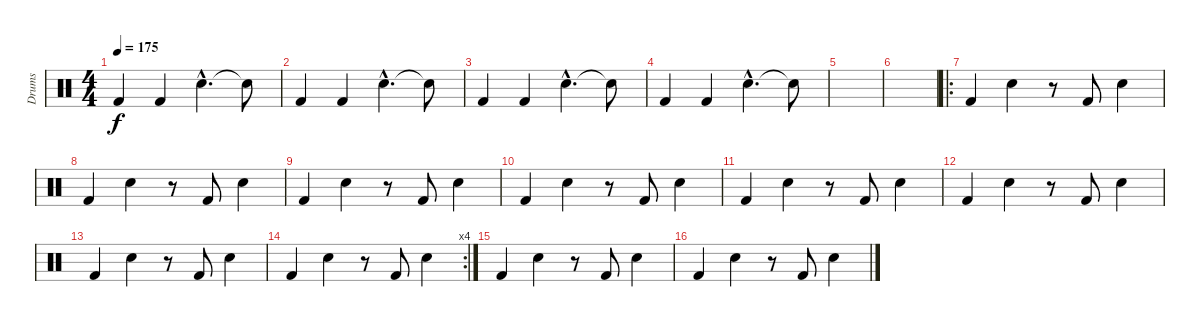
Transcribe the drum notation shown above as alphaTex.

\track ("Drums" "Drums") {instrument percussion}
\staff {score}
\articulation defaults
\ts (4 4)
\tempo 175
\clef neutral
\ks c "Kick (hit) 2".4{dy f} "Kick (hit) 2".4 "Electric Snare (hit)"{hac}.4{d} "Snare (hit)"{t}.8
|
"Kick (hit) 2".4 "Kick (hit) 2".4 "Electric Snare (hit)"{hac}.4{d} "Snare (hit)"{t}.8 |
"Kick (hit) 2".4 "Kick (hit) 2".4 "Electric Snare (hit)"{hac}.4{d} "Snare (hit)"{t}.8 |
"Kick (hit) 2".4 "Kick (hit) 2".4 "Electric Snare (hit)"{hac}.4{d} "Snare (hit)"{t}.8 |
|
|
\ro "Kick (hit) 2".4 "Electric Snare (hit)".4
r.8 "Kick (hit) 2".8 "Electric Snare (hit)".4 |
"Kick (hit) 2".4 "Electric Snare (hit)".4 r.8 "Kick (hit) 2".8 "Electric Snare (hit)".4 |
"Kick (hit) 2".4 "Electric Snare (hit)".4 r.8 "Kick (hit) 2".8 "Electric Snare (hit)".4 |
"Kick (hit) 2".4 "Electric Snare (hit)".4 r.8 "Kick (hit) 2".8 "Electric Snare (hit)".4 |
"Kick (hit) 2".4 "Electric Snare (hit)".4 r.8 "Kick (hit) 2".8 "Electric Snare (hit)".4 |
"Kick (hit) 2".4 "Electric Snare (hit)".4 r.8 "Kick (hit) 2".8 "Electric Snare (hit)".4 |
"Kick (hit) 2".4 "Electric Snare (hit)".4 r.8 "Kick (hit) 2".8 "Electric Snare (hit)".4 |
\rc 4 "Kick (hit) 2".4 "Electric Snare (hit)".4
r.8 "Kick (hit) 2".8 "Electric Snare (hit)".4 |
"Kick (hit) 2".4 "Electric Snare (hit)".4 r.8 "Kick (hit) 2".8 "Electric Snare (hit)".4 |
"Kick (hit) 2".4 "Electric Snare (hit)".4 r.8 "Kick (hit) 2".8 "Electric Snare (hit)".4
